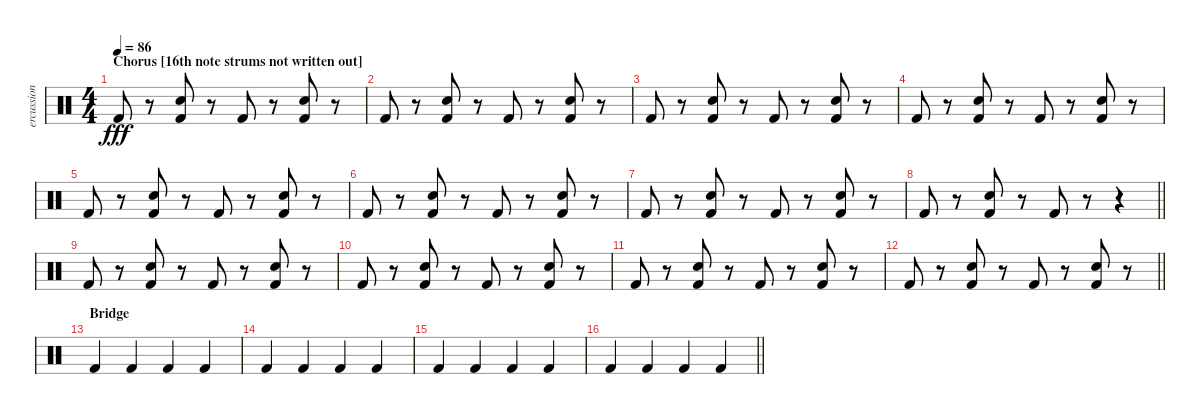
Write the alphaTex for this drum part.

\track ("ercussion" "ercussion") {instrument percussion}
\staff {score}
\articulation defaults
\ts (4 4)
\section ("" "Chorus [16th note strums not written out]")
\tempo 86
\clef neutral
\ks c "Kick (hit) 2".8{dy fff}
r.8 ("Snare (hit) 2" "Kick (hit) 2").8 r.8 "Kick (hit) 2".8 r.8 ("Snare (hit) 2" "Kick (hit) 2").8 r.8 |
"Kick (hit) 2".8 r.8 ("Snare (hit) 2" "Kick (hit) 2").8 r.8 "Kick (hit) 2".8 r.8 ("Snare (hit) 2" "Kick (hit) 2").8 r.8 |
"Kick (hit) 2".8 r.8 ("Snare (hit) 2" "Kick (hit) 2").8 r.8 "Kick (hit) 2".8 r.8 ("Snare (hit) 2" "Kick (hit) 2").8 r.8 |
"Kick (hit) 2".8 r.8 ("Snare (hit) 2" "Kick (hit) 2").8 r.8 "Kick (hit) 2".8 r.8 ("Snare (hit) 2" "Kick (hit) 2").8 r.8 |
"Kick (hit) 2".8 r.8 ("Snare (hit) 2" "Kick (hit) 2").8 r.8 "Kick (hit) 2".8 r.8 ("Snare (hit) 2" "Kick (hit) 2").8 r.8 |
"Kick (hit) 2".8 r.8 ("Snare (hit) 2" "Kick (hit) 2").8 r.8 "Kick (hit) 2".8 r.8 ("Snare (hit) 2" "Kick (hit) 2").8 r.8 |
"Kick (hit) 2".8 r.8 ("Snare (hit) 2" "Kick (hit) 2").8 r.8 "Kick (hit) 2".8 r.8 ("Snare (hit) 2" "Kick (hit) 2").8 r.8 |
\barLineRight lightlight "Kick (hit) 2".8
r.8 ("Snare (hit) 2" "Kick (hit) 2").8 r.8 "Kick (hit) 2".8 r.8 r.4 |
"Kick (hit) 2".8 r.8 ("Snare (hit) 2" "Kick (hit) 2").8 r.8 "Kick (hit) 2".8 r.8 ("Snare (hit) 2" "Kick (hit) 2").8 r.8 |
"Kick (hit) 2".8 r.8 ("Snare (hit) 2" "Kick (hit) 2").8 r.8 "Kick (hit) 2".8 r.8 ("Snare (hit) 2" "Kick (hit) 2").8 r.8 |
"Kick (hit) 2".8 r.8 ("Snare (hit) 2" "Kick (hit) 2").8 r.8 "Kick (hit) 2".8 r.8 ("Snare (hit) 2" "Kick (hit) 2").8 r.8 |
\barLineRight lightlight "Kick (hit) 2".8
r.8 ("Snare (hit) 2" "Kick (hit) 2").8 r.8 "Kick (hit) 2".8 r.8 ("Snare (hit) 2" "Kick (hit) 2").8 r.8 |
\section ("" "Bridge")
"Kick (hit) 2".4 "Kick (hit) 2".4 "Kick (hit) 2".4 "Kick (hit) 2".4 |
"Kick (hit) 2".4 "Kick (hit) 2".4 "Kick (hit) 2".4 "Kick (hit) 2".4 |
"Kick (hit) 2".4 "Kick (hit) 2".4 "Kick (hit) 2".4 "Kick (hit) 2".4 |
\barLineRight lightlight "Kick (hit) 2".4 "Kick (hit) 2".4 "Kick (hit) 2".4 "Kick (hit) 2".4
